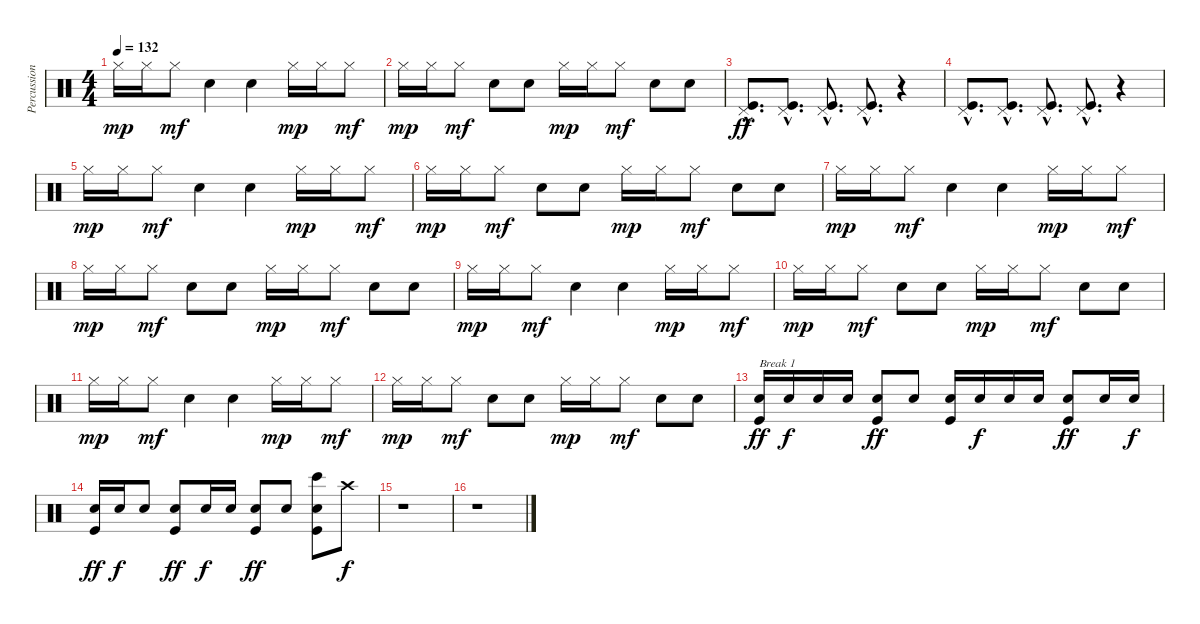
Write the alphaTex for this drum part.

\track ("Percussion" "Percussion") {instrument percussion}
\staff {score}
\articulation defaults
\ts (4 4)
\tempo 132
\clef neutral
\ks c "Hi-Hat (closed)".16{dy mp} "Hi-Hat (closed)".16 "Hi-Hat (closed)".8{dy mf} "Hand Clap (hit)".4 "Hand Clap (hit)".4 "Hi-Hat (closed)".16{dy mp} "Hi-Hat (closed)".16 "Hi-Hat (closed)".8{dy mf}
|
"Hi-Hat (closed)".16{dy mp} "Hi-Hat (closed)".16 "Hi-Hat (closed)".8{dy mf} "Hand Clap (hit)".8 "Hand Clap (hit)".8 "Hi-Hat (closed)".16{dy mp} "Hi-Hat (closed)".16 "Hi-Hat (closed)".8{dy mf} "Hand Clap (hit)".8 "Hand Clap (hit)".8 |
("Pedal Hi-Hat (hit)"{hac} "Kick (hit)"{hac}).8{d dy ff} ("Pedal Hi-Hat (hit)"{hac} "Kick (hit)"{hac}).8{d} ("Pedal Hi-Hat (hit)"{hac} "Kick (hit)"{hac}).8{d} ("Pedal Hi-Hat (hit)"{hac} "Kick (hit)"{hac}).8{d} r.4 |
("Pedal Hi-Hat (hit)"{hac} "Kick (hit)"{hac}).8{d} ("Pedal Hi-Hat (hit)"{hac} "Kick (hit)"{hac}).8{d} ("Pedal Hi-Hat (hit)"{hac} "Kick (hit)"{hac}).8{d} ("Pedal Hi-Hat (hit)"{hac} "Kick (hit)"{hac}).8{d} r.4 |
"Hi-Hat (closed)".16{dy mp} "Hi-Hat (closed)".16 "Hi-Hat (closed)".8{dy mf} "Hand Clap (hit)".4 "Hand Clap (hit)".4 "Hi-Hat (closed)".16{dy mp} "Hi-Hat (closed)".16 "Hi-Hat (closed)".8{dy mf} |
"Hi-Hat (closed)".16{dy mp} "Hi-Hat (closed)".16 "Hi-Hat (closed)".8{dy mf} "Hand Clap (hit)".8 "Hand Clap (hit)".8 "Hi-Hat (closed)".16{dy mp} "Hi-Hat (closed)".16 "Hi-Hat (closed)".8{dy mf} "Hand Clap (hit)".8 "Hand Clap (hit)".8 |
"Hi-Hat (closed)".16{dy mp} "Hi-Hat (closed)".16 "Hi-Hat (closed)".8{dy mf} "Hand Clap (hit)".4 "Hand Clap (hit)".4 "Hi-Hat (closed)".16{dy mp} "Hi-Hat (closed)".16 "Hi-Hat (closed)".8{dy mf} |
"Hi-Hat (closed)".16{dy mp} "Hi-Hat (closed)".16 "Hi-Hat (closed)".8{dy mf} "Hand Clap (hit)".8 "Hand Clap (hit)".8 "Hi-Hat (closed)".16{dy mp} "Hi-Hat (closed)".16 "Hi-Hat (closed)".8{dy mf} "Hand Clap (hit)".8 "Hand Clap (hit)".8 |
"Hi-Hat (closed)".16{dy mp} "Hi-Hat (closed)".16 "Hi-Hat (closed)".8{dy mf} "Hand Clap (hit)".4 "Hand Clap (hit)".4 "Hi-Hat (closed)".16{dy mp} "Hi-Hat (closed)".16 "Hi-Hat (closed)".8{dy mf} |
"Hi-Hat (closed)".16{dy mp} "Hi-Hat (closed)".16 "Hi-Hat (closed)".8{dy mf} "Hand Clap (hit)".8 "Hand Clap (hit)".8 "Hi-Hat (closed)".16{dy mp} "Hi-Hat (closed)".16 "Hi-Hat (closed)".8{dy mf} "Hand Clap (hit)".8 "Hand Clap (hit)".8 |
"Hi-Hat (closed)".16{dy mp} "Hi-Hat (closed)".16 "Hi-Hat (closed)".8{dy mf} "Hand Clap (hit)".4 "Hand Clap (hit)".4 "Hi-Hat (closed)".16{dy mp} "Hi-Hat (closed)".16 "Hi-Hat (closed)".8{dy mf} |
"Hi-Hat (closed)".16{dy mp} "Hi-Hat (closed)".16 "Hi-Hat (closed)".8{dy mf} "Hand Clap (hit)".8 "Hand Clap (hit)".8 "Hi-Hat (closed)".16{dy mp} "Hi-Hat (closed)".16 "Hi-Hat (closed)".8{dy mf} "Hand Clap (hit)".8 "Hand Clap (hit)".8 |
("Electric Snare (hit)" "Kick (hit)").16{txt "Break 1" dy ff} "Electric Snare (hit)".16{dy f} "Electric Snare (hit)".16 "Electric Snare (hit)".16 ("Electric Snare (hit)" "Kick (hit)").8{dy ff} "Electric Snare (hit)".8 ("Electric Snare (hit)" "Kick (hit)").16 "Electric Snare (hit)".16{dy f} "Electric Snare (hit)".16 "Electric Snare (hit)".16 ("Electric Snare (hit)" "Kick (hit)").8{dy ff} "Electric Snare (hit)".16 "Electric Snare (hit)".16{dy f} |
("Electric Snare (hit)" "Kick (hit)").16{dy ff} "Electric Snare (hit)".16{dy f} "Electric Snare (hit)".8 ("Electric Snare (hit)" "Kick (hit)").8{dy ff} "Electric Snare (hit)".16{dy f} "Electric Snare (hit)".16 ("Electric Snare (hit)" "Kick (hit)").8{dy ff} "Electric Snare (hit)".8 ("Bongo High (hit)" "Electric Snare (hit)" "Kick (hit)").8 "Crash high (hit)".8{dy f} |
r.1 |
r.1
